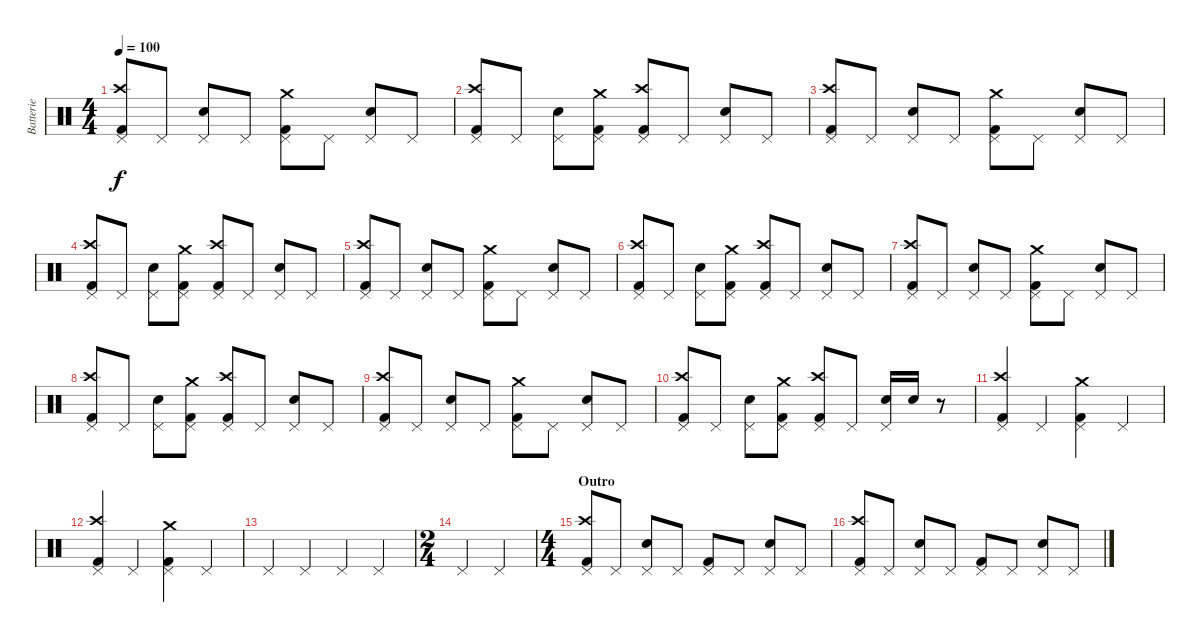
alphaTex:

\track ("Batterie" "Batterie") {instrument percussion}
\staff {score}
\articulation defaults
\ts (4 4)
\tempo 100
\clef neutral
\ks c
("Pedal Hi-Hat (hit)" "Crash high (hit)" "Kick (hit) 2").8{dy f} "Pedal Hi-Hat (hit)".8 ("Pedal Hi-Hat (hit)" "Snare (hit) 2").8 "Pedal Hi-Hat (hit)".8 ("Pedal Hi-Hat (hit)" "Crash medium (hit)" "Kick (hit) 2").8 "Pedal Hi-Hat (hit)".8 ("Pedal Hi-Hat (hit)" "Snare (hit) 2").8 "Pedal Hi-Hat (hit)".8 |
("Pedal Hi-Hat (hit)" "Crash high (hit)" "Kick (hit) 2").8 "Pedal Hi-Hat (hit)".8 ("Pedal Hi-Hat (hit)" "Snare (hit) 2").8 ("Pedal Hi-Hat (hit)" "Crash medium (hit)" "Kick (hit) 2").8 ("Pedal Hi-Hat (hit)" "Crash high (hit)" "Kick (hit) 2").8 "Pedal Hi-Hat (hit)".8 ("Pedal Hi-Hat (hit)" "Snare (hit) 2").8 "Pedal Hi-Hat (hit)".8 |
("Pedal Hi-Hat (hit)" "Crash high (hit)" "Kick (hit) 2").8 "Pedal Hi-Hat (hit)".8 ("Pedal Hi-Hat (hit)" "Snare (hit) 2").8 "Pedal Hi-Hat (hit)".8 ("Pedal Hi-Hat (hit)" "Crash medium (hit)" "Kick (hit) 2").8 "Pedal Hi-Hat (hit)".8 ("Pedal Hi-Hat (hit)" "Snare (hit) 2").8 "Pedal Hi-Hat (hit)".8 |
("Pedal Hi-Hat (hit)" "Crash high (hit)" "Kick (hit) 2").8 "Pedal Hi-Hat (hit)".8 ("Pedal Hi-Hat (hit)" "Snare (hit) 2").8 ("Pedal Hi-Hat (hit)" "Crash medium (hit)" "Kick (hit) 2").8 ("Pedal Hi-Hat (hit)" "Crash high (hit)" "Kick (hit) 2").8 "Pedal Hi-Hat (hit)".8 ("Pedal Hi-Hat (hit)" "Snare (hit) 2").8 "Pedal Hi-Hat (hit)".8 |
("Pedal Hi-Hat (hit)" "Crash high (hit)" "Kick (hit) 2").8 "Pedal Hi-Hat (hit)".8 ("Pedal Hi-Hat (hit)" "Snare (hit) 2").8 "Pedal Hi-Hat (hit)".8 ("Pedal Hi-Hat (hit)" "Crash medium (hit)" "Kick (hit) 2").8 "Pedal Hi-Hat (hit)".8 ("Pedal Hi-Hat (hit)" "Snare (hit) 2").8 "Pedal Hi-Hat (hit)".8 |
("Pedal Hi-Hat (hit)" "Crash high (hit)" "Kick (hit) 2").8 "Pedal Hi-Hat (hit)".8 ("Pedal Hi-Hat (hit)" "Snare (hit) 2").8 ("Pedal Hi-Hat (hit)" "Crash medium (hit)" "Kick (hit) 2").8 ("Pedal Hi-Hat (hit)" "Crash high (hit)" "Kick (hit) 2").8 "Pedal Hi-Hat (hit)".8 ("Pedal Hi-Hat (hit)" "Snare (hit) 2").8 "Pedal Hi-Hat (hit)".8 |
("Pedal Hi-Hat (hit)" "Crash high (hit)" "Kick (hit) 2").8 "Pedal Hi-Hat (hit)".8 ("Pedal Hi-Hat (hit)" "Snare (hit) 2").8 "Pedal Hi-Hat (hit)".8 ("Pedal Hi-Hat (hit)" "Crash medium (hit)" "Kick (hit) 2").8 "Pedal Hi-Hat (hit)".8 ("Pedal Hi-Hat (hit)" "Snare (hit) 2").8 "Pedal Hi-Hat (hit)".8 |
("Pedal Hi-Hat (hit)" "Crash high (hit)" "Kick (hit) 2").8 "Pedal Hi-Hat (hit)".8 ("Pedal Hi-Hat (hit)" "Snare (hit) 2").8 ("Pedal Hi-Hat (hit)" "Crash medium (hit)" "Kick (hit) 2").8 ("Pedal Hi-Hat (hit)" "Crash high (hit)" "Kick (hit) 2").8 "Pedal Hi-Hat (hit)".8 ("Pedal Hi-Hat (hit)" "Snare (hit) 2").8 "Pedal Hi-Hat (hit)".8 |
("Pedal Hi-Hat (hit)" "Crash high (hit)" "Kick (hit) 2").8 "Pedal Hi-Hat (hit)".8 ("Pedal Hi-Hat (hit)" "Snare (hit) 2").8 "Pedal Hi-Hat (hit)".8 ("Pedal Hi-Hat (hit)" "Crash medium (hit)" "Kick (hit) 2").8 "Pedal Hi-Hat (hit)".8 ("Pedal Hi-Hat (hit)" "Snare (hit) 2").8 "Pedal Hi-Hat (hit)".8 |
("Pedal Hi-Hat (hit)" "Crash high (hit)" "Kick (hit) 2").8 "Pedal Hi-Hat (hit)".8 ("Pedal Hi-Hat (hit)" "Snare (hit) 2").8 ("Pedal Hi-Hat (hit)" "Crash medium (hit)" "Kick (hit) 2").8 ("Pedal Hi-Hat (hit)" "Crash high (hit)" "Kick (hit) 2").8 "Pedal Hi-Hat (hit)".8 ("Pedal Hi-Hat (hit)" "Snare (hit) 2").16 "Snare (hit) 2".16 r.8 |
("Pedal Hi-Hat (hit)" "Crash high (hit)" "Kick (hit) 2").4 "Pedal Hi-Hat (hit)".4 ("Pedal Hi-Hat (hit)" "Crash medium (hit)" "Kick (hit) 2").4 "Pedal Hi-Hat (hit)".4 |
("Pedal Hi-Hat (hit)" "Crash high (hit)" "Kick (hit) 2").4 "Pedal Hi-Hat (hit)".4 ("Pedal Hi-Hat (hit)" "Crash medium (hit)" "Kick (hit) 2").4 "Pedal Hi-Hat (hit)".4 |
"Pedal Hi-Hat (hit)".4 "Pedal Hi-Hat (hit)".4 "Pedal Hi-Hat (hit)".4 "Pedal Hi-Hat (hit)".4 |
\ts (2 4)
"Pedal Hi-Hat (hit)".4 "Pedal Hi-Hat (hit)".4 |
\ts (4 4)
\section ("" "Outro")
("Pedal Hi-Hat (hit)" "Crash high (hit)" "Kick (hit) 2").8 "Pedal Hi-Hat (hit)".8 ("Pedal Hi-Hat (hit)" "Snare (hit) 2").8 "Pedal Hi-Hat (hit)".8 ("Pedal Hi-Hat (hit)" "Kick (hit) 2").8 "Pedal Hi-Hat (hit)".8 ("Pedal Hi-Hat (hit)" "Snare (hit) 2").8 "Pedal Hi-Hat (hit)".8 |
("Pedal Hi-Hat (hit)" "Crash high (hit)" "Kick (hit) 2").8 "Pedal Hi-Hat (hit)".8 ("Pedal Hi-Hat (hit)" "Snare (hit) 2").8 "Pedal Hi-Hat (hit)".8 ("Pedal Hi-Hat (hit)" "Kick (hit) 2").8 "Pedal Hi-Hat (hit)".8 ("Pedal Hi-Hat (hit)" "Snare (hit) 2").8 "Pedal Hi-Hat (hit)".8
